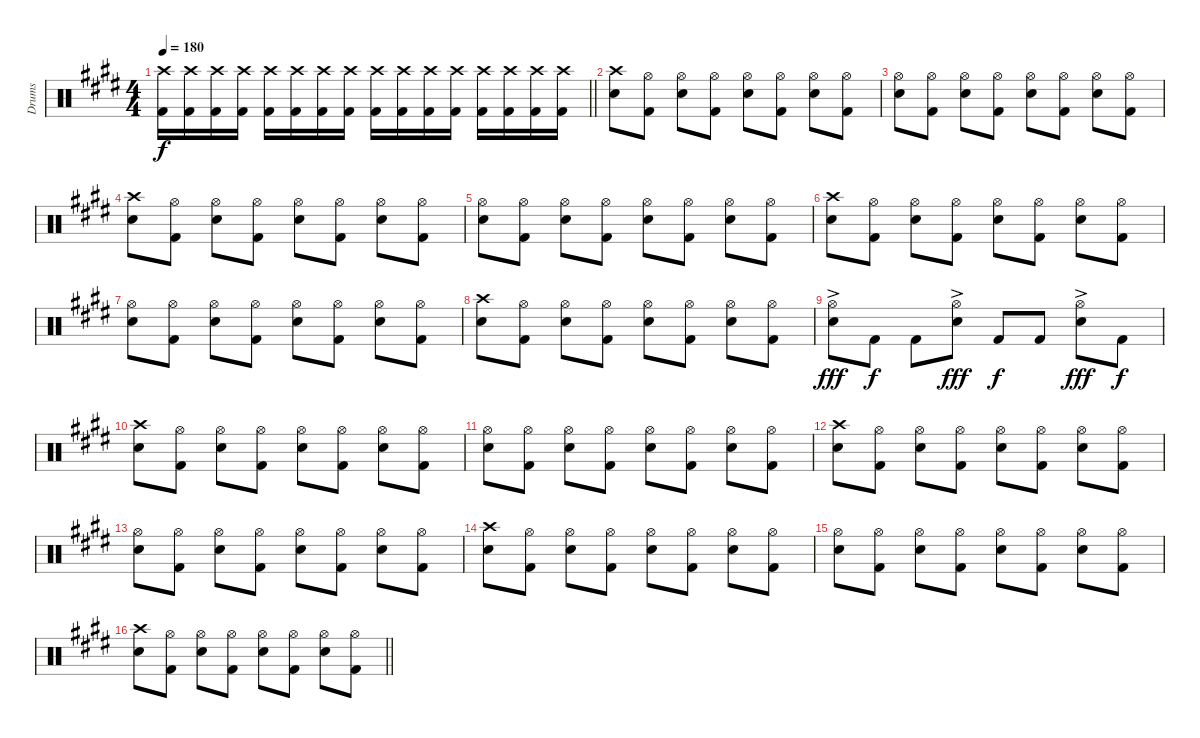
\track ("Drums" "Drums") {instrument percussion}
\staff {score}
\articulation defaults
\ts (4 4)
\tempo 180
\clef neutral
\barLineRight lightlight
\ks c#minor
("Crash high (hit)" "Kick (hit) 2").16{dy f} ("Crash high (hit)" "Kick (hit) 2").16 ("Crash high (hit)" "Kick (hit) 2").16 ("Crash high (hit)" "Kick (hit) 2").16 ("Crash high (hit)" "Kick (hit) 2").16 ("Crash high (hit)" "Kick (hit) 2").16 ("Crash high (hit)" "Kick (hit) 2").16 ("Crash high (hit)" "Kick (hit) 2").16 ("Crash high (hit)" "Kick (hit) 2").16 ("Crash high (hit)" "Kick (hit) 2").16 ("Crash high (hit)" "Kick (hit) 2").16 ("Crash high (hit)" "Kick (hit) 2").16 ("Crash high (hit)" "Kick (hit) 2").16 ("Crash high (hit)" "Kick (hit) 2").16 ("Crash high (hit)" "Kick (hit) 2").16 ("Crash high (hit)" "Kick (hit) 2").16 |
("Crash high (hit)" "Snare (hit) 2").8 ("Hi-Hat (open)" "Kick (hit) 2").8 ("Hi-Hat (open)" "Snare (hit) 2").8 ("Hi-Hat (open)" "Kick (hit) 2").8 ("Hi-Hat (open)" "Snare (hit) 2").8 ("Hi-Hat (open)" "Kick (hit) 2").8 ("Hi-Hat (open)" "Snare (hit) 2").8 ("Hi-Hat (open)" "Kick (hit) 2").8 |
("Hi-Hat (open)" "Snare (hit) 2").8 ("Hi-Hat (open)" "Kick (hit) 2").8 ("Hi-Hat (open)" "Snare (hit) 2").8 ("Hi-Hat (open)" "Kick (hit) 2").8 ("Hi-Hat (open)" "Snare (hit) 2").8 ("Hi-Hat (open)" "Kick (hit) 2").8 ("Hi-Hat (open)" "Snare (hit) 2").8 ("Hi-Hat (open)" "Kick (hit) 2").8 |
("Crash high (hit)" "Snare (hit) 2").8 ("Hi-Hat (open)" "Kick (hit) 2").8 ("Hi-Hat (open)" "Snare (hit) 2").8 ("Hi-Hat (open)" "Kick (hit) 2").8 ("Hi-Hat (open)" "Snare (hit) 2").8 ("Hi-Hat (open)" "Kick (hit) 2").8 ("Hi-Hat (open)" "Snare (hit) 2").8 ("Hi-Hat (open)" "Kick (hit) 2").8 |
("Hi-Hat (open)" "Snare (hit) 2").8 ("Hi-Hat (open)" "Kick (hit) 2").8 ("Hi-Hat (open)" "Snare (hit) 2").8 ("Hi-Hat (open)" "Kick (hit) 2").8 ("Hi-Hat (open)" "Snare (hit) 2").8 ("Hi-Hat (open)" "Kick (hit) 2").8 ("Hi-Hat (open)" "Snare (hit) 2").8 ("Hi-Hat (open)" "Kick (hit) 2").8 |
("Crash high (hit)" "Snare (hit) 2").8 ("Hi-Hat (open)" "Kick (hit) 2").8 ("Hi-Hat (open)" "Snare (hit) 2").8 ("Hi-Hat (open)" "Kick (hit) 2").8 ("Hi-Hat (open)" "Snare (hit) 2").8 ("Hi-Hat (open)" "Kick (hit) 2").8 ("Hi-Hat (open)" "Snare (hit) 2").8 ("Hi-Hat (open)" "Kick (hit) 2").8 |
("Hi-Hat (open)" "Snare (hit) 2").8 ("Hi-Hat (open)" "Kick (hit) 2").8 ("Hi-Hat (open)" "Snare (hit) 2").8 ("Hi-Hat (open)" "Kick (hit) 2").8 ("Hi-Hat (open)" "Snare (hit) 2").8 ("Hi-Hat (open)" "Kick (hit) 2").8 ("Hi-Hat (open)" "Snare (hit) 2").8 ("Hi-Hat (open)" "Kick (hit) 2").8 |
("Crash high (hit)" "Snare (hit) 2").8 ("Hi-Hat (open)" "Kick (hit) 2").8 ("Hi-Hat (open)" "Snare (hit) 2").8 ("Hi-Hat (open)" "Kick (hit) 2").8 ("Hi-Hat (open)" "Snare (hit) 2").8 ("Hi-Hat (open)" "Kick (hit) 2").8 ("Hi-Hat (open)" "Snare (hit) 2").8 ("Hi-Hat (open)" "Kick (hit) 2").8 |
("Hi-Hat (open)"{ac} "Snare (hit) 2").8{dy fff} "Kick (hit) 2".8{dy f} "Kick (hit) 2".8 ("Hi-Hat (open)"{ac} "Snare (hit) 2").8{dy fff} "Kick (hit) 2".8{dy f} "Kick (hit) 2".8 ("Hi-Hat (open)"{ac} "Snare (hit) 2").8{dy fff} "Kick (hit) 2".8{dy f} |
("Crash high (hit)" "Snare (hit) 2").8 ("Hi-Hat (open)" "Kick (hit) 2").8 ("Hi-Hat (open)" "Snare (hit) 2").8 ("Hi-Hat (open)" "Kick (hit) 2").8 ("Hi-Hat (open)" "Snare (hit) 2").8 ("Hi-Hat (open)" "Kick (hit) 2").8 ("Hi-Hat (open)" "Snare (hit) 2").8 ("Hi-Hat (open)" "Kick (hit) 2").8 |
("Hi-Hat (open)" "Snare (hit) 2").8 ("Hi-Hat (open)" "Kick (hit) 2").8 ("Hi-Hat (open)" "Snare (hit) 2").8 ("Hi-Hat (open)" "Kick (hit) 2").8 ("Hi-Hat (open)" "Snare (hit) 2").8 ("Hi-Hat (open)" "Kick (hit) 2").8 ("Hi-Hat (open)" "Snare (hit) 2").8 ("Hi-Hat (open)" "Kick (hit) 2").8 |
("Crash high (hit)" "Snare (hit) 2").8 ("Hi-Hat (open)" "Kick (hit) 2").8 ("Hi-Hat (open)" "Snare (hit) 2").8 ("Hi-Hat (open)" "Kick (hit) 2").8 ("Hi-Hat (open)" "Snare (hit) 2").8 ("Hi-Hat (open)" "Kick (hit) 2").8 ("Hi-Hat (open)" "Snare (hit) 2").8 ("Hi-Hat (open)" "Kick (hit) 2").8 |
("Hi-Hat (open)" "Snare (hit) 2").8 ("Hi-Hat (open)" "Kick (hit) 2").8 ("Hi-Hat (open)" "Snare (hit) 2").8 ("Hi-Hat (open)" "Kick (hit) 2").8 ("Hi-Hat (open)" "Snare (hit) 2").8 ("Hi-Hat (open)" "Kick (hit) 2").8 ("Hi-Hat (open)" "Snare (hit) 2").8 ("Hi-Hat (open)" "Kick (hit) 2").8 |
("Crash high (hit)" "Snare (hit) 2").8 ("Hi-Hat (open)" "Kick (hit) 2").8 ("Hi-Hat (open)" "Snare (hit) 2").8 ("Hi-Hat (open)" "Kick (hit) 2").8 ("Hi-Hat (open)" "Snare (hit) 2").8 ("Hi-Hat (open)" "Kick (hit) 2").8 ("Hi-Hat (open)" "Snare (hit) 2").8 ("Hi-Hat (open)" "Kick (hit) 2").8 |
("Hi-Hat (open)" "Snare (hit) 2").8 ("Hi-Hat (open)" "Kick (hit) 2").8 ("Hi-Hat (open)" "Snare (hit) 2").8 ("Hi-Hat (open)" "Kick (hit) 2").8 ("Hi-Hat (open)" "Snare (hit) 2").8 ("Hi-Hat (open)" "Kick (hit) 2").8 ("Hi-Hat (open)" "Snare (hit) 2").8 ("Hi-Hat (open)" "Kick (hit) 2").8 |
\barLineRight lightlight
("Crash high (hit)" "Snare (hit) 2").8 ("Hi-Hat (open)" "Kick (hit) 2").8 ("Hi-Hat (open)" "Snare (hit) 2").8 ("Hi-Hat (open)" "Kick (hit) 2").8 ("Hi-Hat (open)" "Snare (hit) 2").8 ("Hi-Hat (open)" "Kick (hit) 2").8 ("Hi-Hat (open)" "Snare (hit) 2").8 ("Hi-Hat (open)" "Kick (hit) 2").8
